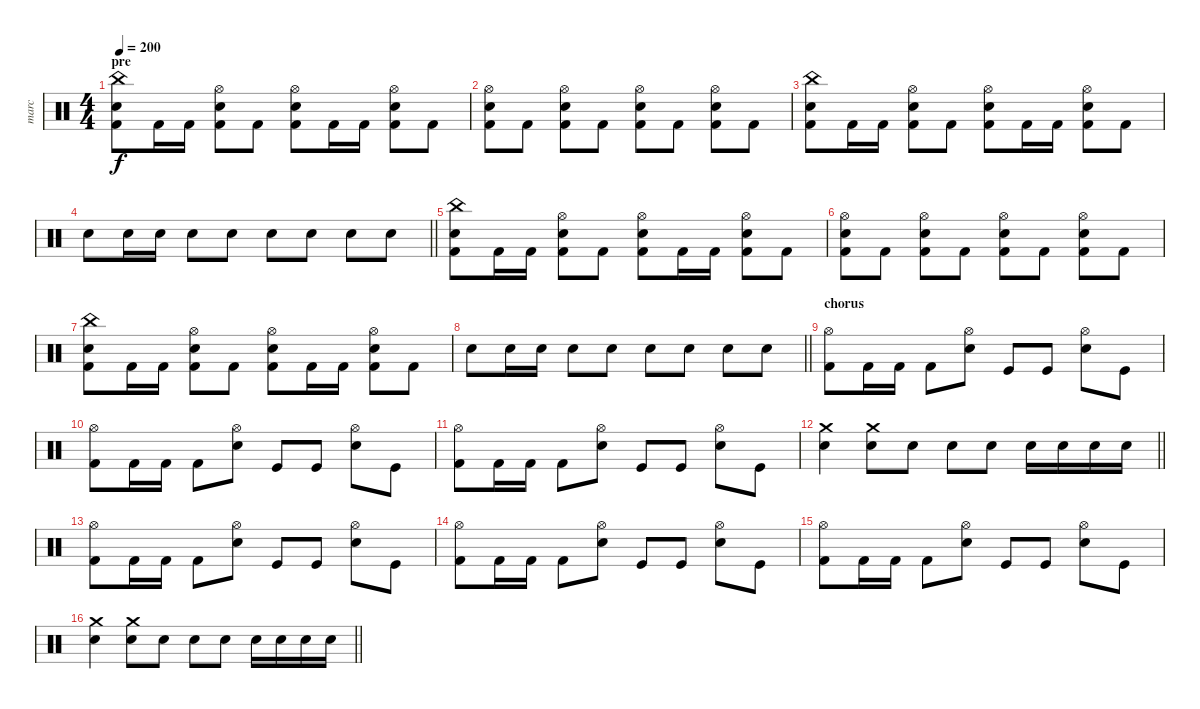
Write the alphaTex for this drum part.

\track ("marc" "marc") {instrument percussion}
\staff {score}
\articulation defaults
\ts (4 4)
\section ("" "pre")
\tempo 200
\clef neutral
\ks c
("China (hit)" "Snare (hit) 2" "Kick (hit) 2").8{dy f} "Kick (hit) 2".16 "Kick (hit) 2".16 ("Hi-Hat (open)" "Snare (hit) 2" "Kick (hit) 2").8 "Kick (hit) 2".8 ("Hi-Hat (open)" "Snare (hit) 2" "Kick (hit) 2").8 "Kick (hit) 2".16 "Kick (hit) 2".16 ("Hi-Hat (open)" "Snare (hit) 2" "Kick (hit) 2").8 "Kick (hit) 2".8 |
("Hi-Hat (open)" "Snare (hit) 2" "Kick (hit) 2").8 "Kick (hit) 2".8 ("Hi-Hat (open)" "Snare (hit) 2" "Kick (hit) 2").8 "Kick (hit) 2".8 ("Hi-Hat (open)" "Snare (hit) 2" "Kick (hit) 2").8 "Kick (hit) 2".8 ("Hi-Hat (open)" "Snare (hit) 2" "Kick (hit) 2").8 "Kick (hit) 2".8 |
("China (hit)" "Snare (hit) 2" "Kick (hit) 2").8 "Kick (hit) 2".16 "Kick (hit) 2".16 ("Hi-Hat (open)" "Snare (hit) 2" "Kick (hit) 2").8 "Kick (hit) 2".8 ("Hi-Hat (open)" "Snare (hit) 2" "Kick (hit) 2").8 "Kick (hit) 2".16 "Kick (hit) 2".16 ("Hi-Hat (open)" "Snare (hit) 2" "Kick (hit) 2").8 "Kick (hit) 2".8 |
\barLineRight lightlight "Snare (hit) 2".8 "Snare (hit) 2".16 "Snare (hit) 2".16 "Snare (hit) 2".8 "Snare (hit) 2".8 "Snare (hit) 2".8 "Snare (hit) 2".8 "Snare (hit) 2".8 "Snare (hit) 2".8
|
("China (hit)" "Snare (hit) 2" "Kick (hit) 2").8 "Kick (hit) 2".16 "Kick (hit) 2".16 ("Hi-Hat (open)" "Snare (hit) 2" "Kick (hit) 2").8 "Kick (hit) 2".8 ("Hi-Hat (open)" "Snare (hit) 2" "Kick (hit) 2").8 "Kick (hit) 2".16 "Kick (hit) 2".16 ("Hi-Hat (open)" "Snare (hit) 2" "Kick (hit) 2").8 "Kick (hit) 2".8 |
("Hi-Hat (open)" "Snare (hit) 2" "Kick (hit) 2").8 "Kick (hit) 2".8 ("Hi-Hat (open)" "Snare (hit) 2" "Kick (hit) 2").8 "Kick (hit) 2".8 ("Hi-Hat (open)" "Snare (hit) 2" "Kick (hit) 2").8 "Kick (hit) 2".8 ("Hi-Hat (open)" "Snare (hit) 2" "Kick (hit) 2").8 "Kick (hit) 2".8 |
("China (hit)" "Snare (hit) 2" "Kick (hit) 2").8 "Kick (hit) 2".16 "Kick (hit) 2".16 ("Hi-Hat (open)" "Snare (hit) 2" "Kick (hit) 2").8 "Kick (hit) 2".8 ("Hi-Hat (open)" "Snare (hit) 2" "Kick (hit) 2").8 "Kick (hit) 2".16 "Kick (hit) 2".16 ("Hi-Hat (open)" "Snare (hit) 2" "Kick (hit) 2").8 "Kick (hit) 2".8 |
\barLineRight lightlight "Snare (hit) 2".8 "Snare (hit) 2".16 "Snare (hit) 2".16 "Snare (hit) 2".8 "Snare (hit) 2".8 "Snare (hit) 2".8 "Snare (hit) 2".8 "Snare (hit) 2".8 "Snare (hit) 2".8
|
\section ("" "chorus")
("Hi-Hat (open)" "Kick (hit) 2").8 "Kick (hit) 2".16 "Kick (hit) 2".16 "Kick (hit) 2".8 ("Hi-Hat (open)" "Snare (hit) 2").8 "Kick (hit)".8 "Kick (hit)".8 ("Hi-Hat (open)" "Snare (hit) 2").8 "Kick (hit)".8 |
("Hi-Hat (open)" "Kick (hit) 2").8 "Kick (hit) 2".16 "Kick (hit) 2".16 "Kick (hit) 2".8 ("Hi-Hat (open)" "Snare (hit) 2").8 "Kick (hit)".8 "Kick (hit)".8 ("Hi-Hat (open)" "Snare (hit) 2").8 "Kick (hit)".8 |
("Hi-Hat (open)" "Kick (hit) 2").8 "Kick (hit) 2".16 "Kick (hit) 2".16 "Kick (hit) 2".8 ("Hi-Hat (open)" "Snare (hit) 2").8 "Kick (hit)".8 "Kick (hit)".8 ("Hi-Hat (open)" "Snare (hit) 2").8 "Kick (hit)".8 |
\barLineRight lightlight
("Crash medium (hit)" "Snare (hit) 2").4 ("Crash medium (hit)" "Snare (hit) 2").8 "Snare (hit) 2".8 "Snare (hit) 2".8 "Snare (hit) 2".8 "Snare (hit) 2".16 "Snare (hit) 2".16 "Snare (hit) 2".16 "Snare (hit) 2".16 |
("Hi-Hat (open)" "Kick (hit) 2").8 "Kick (hit) 2".16 "Kick (hit) 2".16 "Kick (hit) 2".8 ("Hi-Hat (open)" "Snare (hit) 2").8 "Kick (hit)".8 "Kick (hit)".8 ("Hi-Hat (open)" "Snare (hit) 2").8 "Kick (hit)".8 |
("Hi-Hat (open)" "Kick (hit) 2").8 "Kick (hit) 2".16 "Kick (hit) 2".16 "Kick (hit) 2".8 ("Hi-Hat (open)" "Snare (hit) 2").8 "Kick (hit)".8 "Kick (hit)".8 ("Hi-Hat (open)" "Snare (hit) 2").8 "Kick (hit)".8 |
("Hi-Hat (open)" "Kick (hit) 2").8 "Kick (hit) 2".16 "Kick (hit) 2".16 "Kick (hit) 2".8 ("Hi-Hat (open)" "Snare (hit) 2").8 "Kick (hit)".8 "Kick (hit)".8 ("Hi-Hat (open)" "Snare (hit) 2").8 "Kick (hit)".8 |
\barLineRight lightlight
("Crash medium (hit)" "Snare (hit) 2").4 ("Crash medium (hit)" "Snare (hit) 2").8 "Snare (hit) 2".8 "Snare (hit) 2".8 "Snare (hit) 2".8 "Snare (hit) 2".16 "Snare (hit) 2".16 "Snare (hit) 2".16 "Snare (hit) 2".16
